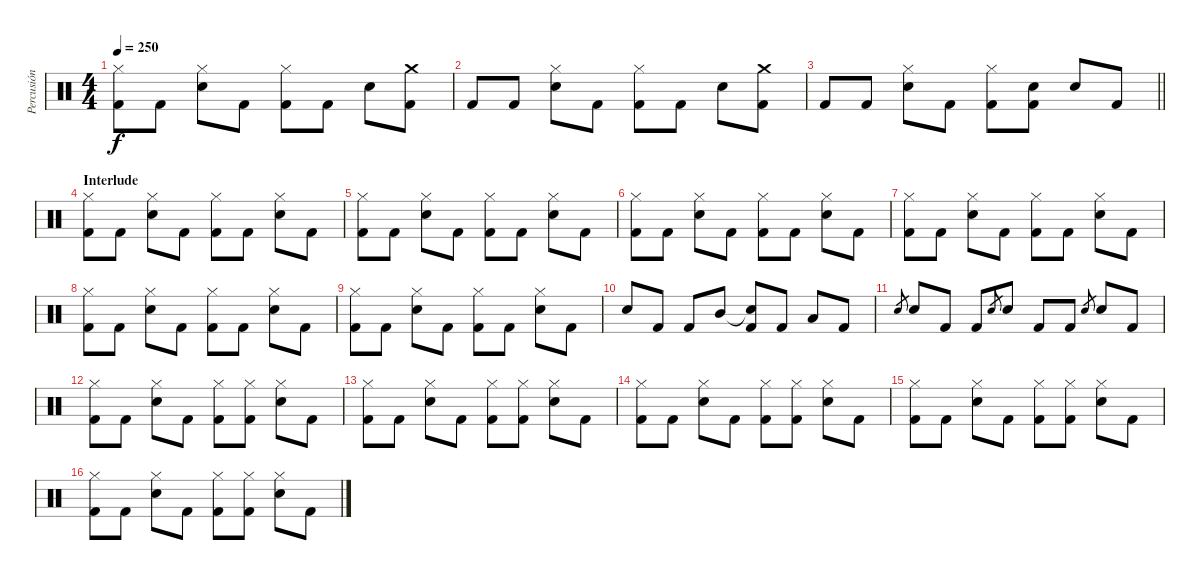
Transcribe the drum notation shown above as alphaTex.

\track ("Percusión" "Percusión") {instrument percussion}
\staff {score}
\articulation defaults
\ts (4 4)
\tempo 250
\clef neutral
\ks c
("Hi-Hat (closed)" "Kick (hit) 2").8{dy f} "Kick (hit) 2".8 ("Electric Snare (hit)" "Hi-Hat (closed)").8 "Kick (hit) 2".8 ("Hi-Hat (closed)" "Kick (hit) 2").8 "Kick (hit) 2".8 "Electric Snare (hit)".8 ("Crash medium (hit)" "Kick (hit) 2").8 |
"Kick (hit) 2".8 "Kick (hit) 2".8 ("Electric Snare (hit)" "Hi-Hat (closed)").8 "Kick (hit) 2".8 ("Hi-Hat (closed)" "Kick (hit) 2").8 "Kick (hit) 2".8 "Electric Snare (hit)".8 ("Crash medium (hit)" "Kick (hit) 2").8 |
\barLineRight lightlight "Kick (hit) 2".8 "Kick (hit) 2".8
("Electric Snare (hit)" "Hi-Hat (closed)").8 "Kick (hit) 2".8 ("Hi-Hat (closed)" "Kick (hit) 2").8 ("Electric Snare (hit)" "Kick (hit) 2").8 "Electric Snare (hit)".8 "Kick (hit) 2".8 |
\section ("" "Interlude")
("Hi-Hat (closed)" "Kick (hit) 2").8 "Kick (hit) 2".8 ("Electric Snare (hit)" "Hi-Hat (closed)").8 "Kick (hit) 2".8 ("Hi-Hat (closed)" "Kick (hit) 2").8 "Kick (hit) 2".8 ("Electric Snare (hit)" "Hi-Hat (closed)").8 "Kick (hit) 2".8 |
("Hi-Hat (closed)" "Kick (hit) 2").8 "Kick (hit) 2".8 ("Electric Snare (hit)" "Hi-Hat (closed)").8 "Kick (hit) 2".8 ("Hi-Hat (closed)" "Kick (hit) 2").8 "Kick (hit) 2".8 ("Electric Snare (hit)" "Hi-Hat (closed)").8 "Kick (hit) 2".8 |
("Hi-Hat (closed)" "Kick (hit) 2").8 "Kick (hit) 2".8 ("Electric Snare (hit)" "Hi-Hat (closed)").8 "Kick (hit) 2".8 ("Hi-Hat (closed)" "Kick (hit) 2").8 "Kick (hit) 2".8 ("Electric Snare (hit)" "Hi-Hat (closed)").8 "Kick (hit) 2".8 |
("Hi-Hat (closed)" "Kick (hit) 2").8 "Kick (hit) 2".8 ("Electric Snare (hit)" "Hi-Hat (closed)").8 "Kick (hit) 2".8 ("Hi-Hat (closed)" "Kick (hit) 2").8 "Kick (hit) 2".8 ("Electric Snare (hit)" "Hi-Hat (closed)").8 "Kick (hit) 2".8 |
("Hi-Hat (closed)" "Kick (hit) 2").8 "Kick (hit) 2".8 ("Electric Snare (hit)" "Hi-Hat (closed)").8 "Kick (hit) 2".8 ("Hi-Hat (closed)" "Kick (hit) 2").8 "Kick (hit) 2".8 ("Electric Snare (hit)" "Hi-Hat (closed)").8 "Kick (hit) 2".8 |
("Hi-Hat (closed)" "Kick (hit) 2").8 "Kick (hit) 2".8 ("Electric Snare (hit)" "Hi-Hat (closed)").8 "Kick (hit) 2".8 ("Hi-Hat (closed)" "Kick (hit) 2").8 "Kick (hit) 2".8 ("Electric Snare (hit)" "Hi-Hat (closed)").8 "Kick (hit) 2".8 |
"Electric Snare (hit)".8 "Kick (hit) 2".8 "Kick (hit) 2".8 "Mid Tom (hit)".8 ("Snare (hit)"{t} "Kick (hit) 2").8 "Kick (hit) 2".8 "Low Tom (hit)".8 "Kick (hit) 2".8 |
"Electric Snare (hit)".8{gr} "Electric Snare (hit)".8 "Kick (hit) 2".8 "Kick (hit) 2".8 "Electric Snare (hit)".8{gr} "Electric Snare (hit)".8 "Kick (hit) 2".8 "Kick (hit) 2".8 "Electric Snare (hit)"{h}.8{gr} "Electric Snare (hit)".8 "Kick (hit) 2".8 |
("Hi-Hat (closed)" "Kick (hit) 2").8 "Kick (hit) 2".8 ("Electric Snare (hit)" "Hi-Hat (closed)").8 "Kick (hit) 2".8 ("Hi-Hat (closed)" "Kick (hit) 2").8 ("Hi-Hat (closed)" "Kick (hit) 2").8 ("Electric Snare (hit)" "Hi-Hat (closed)").8 "Kick (hit) 2".8 |
("Hi-Hat (closed)" "Kick (hit) 2").8 "Kick (hit) 2".8 ("Electric Snare (hit)" "Hi-Hat (closed)").8 "Kick (hit) 2".8 ("Hi-Hat (closed)" "Kick (hit) 2").8 ("Hi-Hat (closed)" "Kick (hit) 2").8 ("Electric Snare (hit)" "Hi-Hat (closed)").8 "Kick (hit) 2".8 |
("Hi-Hat (closed)" "Kick (hit) 2").8 "Kick (hit) 2".8 ("Electric Snare (hit)" "Hi-Hat (closed)").8 "Kick (hit) 2".8 ("Hi-Hat (closed)" "Kick (hit) 2").8 ("Hi-Hat (closed)" "Kick (hit) 2").8 ("Electric Snare (hit)" "Hi-Hat (closed)").8 "Kick (hit) 2".8 |
("Hi-Hat (closed)" "Kick (hit) 2").8 "Kick (hit) 2".8 ("Electric Snare (hit)" "Hi-Hat (closed)").8 "Kick (hit) 2".8 ("Hi-Hat (closed)" "Kick (hit) 2").8 ("Hi-Hat (closed)" "Kick (hit) 2").8 ("Electric Snare (hit)" "Hi-Hat (closed)").8 "Kick (hit) 2".8 |
("Hi-Hat (closed)" "Kick (hit) 2").8 "Kick (hit) 2".8 ("Electric Snare (hit)" "Hi-Hat (closed)").8 "Kick (hit) 2".8 ("Hi-Hat (closed)" "Kick (hit) 2").8 ("Hi-Hat (closed)" "Kick (hit) 2").8 ("Electric Snare (hit)" "Hi-Hat (closed)").8 "Kick (hit) 2".8
